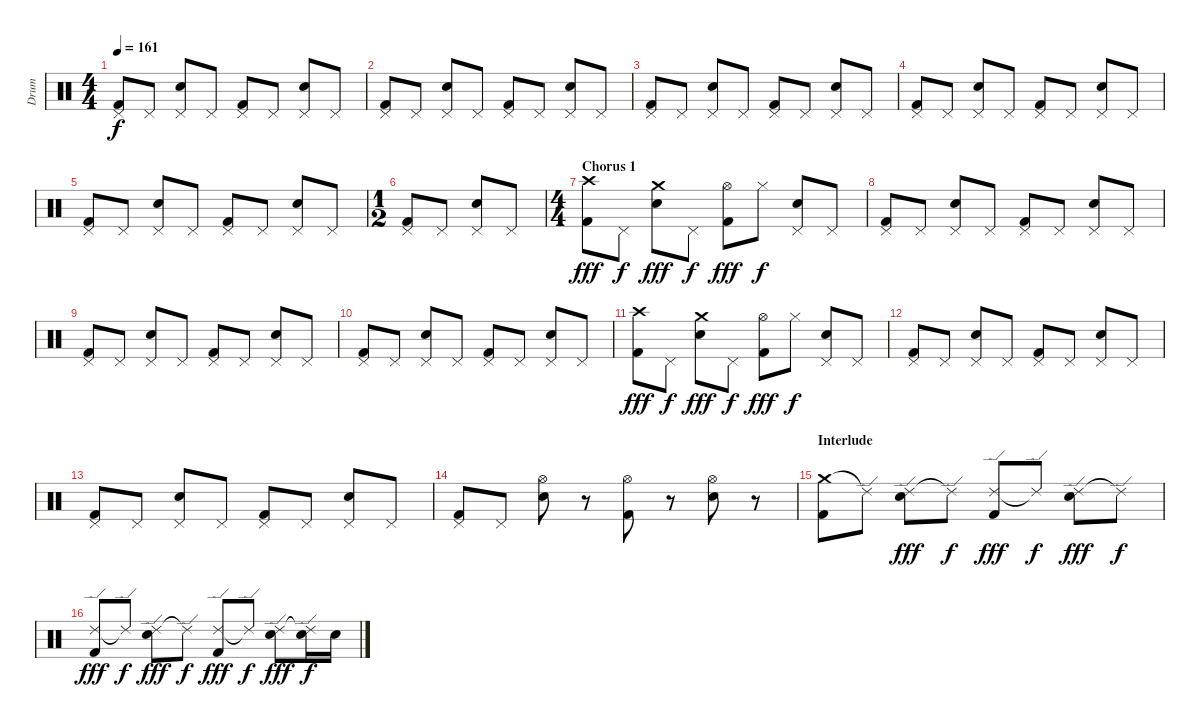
\track ("Drum" "Drum") {instrument percussion}
\staff {score}
\articulation defaults
\ts (4 4)
\tempo 161
\clef neutral
\ks c
("Pedal Hi-Hat (hit)" "Kick (hit) 2").8{dy f} "Pedal Hi-Hat (hit)".8 ("Pedal Hi-Hat (hit)" "Snare (hit) 2").8 "Pedal Hi-Hat (hit)".8 ("Pedal Hi-Hat (hit)" "Kick (hit) 2").8 "Pedal Hi-Hat (hit)".8 ("Pedal Hi-Hat (hit)" "Snare (hit) 2").8 "Pedal Hi-Hat (hit)".8 |
("Pedal Hi-Hat (hit)" "Kick (hit) 2").8 "Pedal Hi-Hat (hit)".8 ("Pedal Hi-Hat (hit)" "Snare (hit) 2").8 "Pedal Hi-Hat (hit)".8 ("Pedal Hi-Hat (hit)" "Kick (hit) 2").8 "Pedal Hi-Hat (hit)".8 ("Pedal Hi-Hat (hit)" "Snare (hit) 2").8 "Pedal Hi-Hat (hit)".8 |
("Pedal Hi-Hat (hit)" "Kick (hit) 2").8 "Pedal Hi-Hat (hit)".8 ("Pedal Hi-Hat (hit)" "Snare (hit) 2").8 "Pedal Hi-Hat (hit)".8 ("Pedal Hi-Hat (hit)" "Kick (hit) 2").8 "Pedal Hi-Hat (hit)".8 ("Pedal Hi-Hat (hit)" "Snare (hit) 2").8 "Pedal Hi-Hat (hit)".8 |
("Pedal Hi-Hat (hit)" "Kick (hit) 2").8 "Pedal Hi-Hat (hit)".8 ("Pedal Hi-Hat (hit)" "Snare (hit) 2").8 "Pedal Hi-Hat (hit)".8 ("Pedal Hi-Hat (hit)" "Kick (hit) 2").8 "Pedal Hi-Hat (hit)".8 ("Pedal Hi-Hat (hit)" "Snare (hit) 2").8 "Pedal Hi-Hat (hit)".8 |
("Pedal Hi-Hat (hit)" "Kick (hit) 2").8 "Pedal Hi-Hat (hit)".8 ("Pedal Hi-Hat (hit)" "Snare (hit) 2").8 "Pedal Hi-Hat (hit)".8 ("Pedal Hi-Hat (hit)" "Kick (hit) 2").8 "Pedal Hi-Hat (hit)".8 ("Pedal Hi-Hat (hit)" "Snare (hit) 2").8 "Pedal Hi-Hat (hit)".8 |
\ts (1 2)
("Pedal Hi-Hat (hit)" "Kick (hit) 2").8 "Pedal Hi-Hat (hit)".8 ("Pedal Hi-Hat (hit)" "Snare (hit) 2").8 "Pedal Hi-Hat (hit)".8 |
\ts (4 4)
\section ("" "Chorus 1")
("Crash high (hit)" "Kick (hit) 2").8{dy fff} "Pedal Hi-Hat (hit)".8{dy f} ("Crash medium (hit)" "Snare (hit) 2").8{dy fff} "Pedal Hi-Hat (hit)".8{dy f} ("Hi-Hat (open)" "Kick (hit) 2").8{dy fff} "Hi-Hat (closed)".8{dy f} ("Pedal Hi-Hat (hit)" "Snare (hit) 2").8 "Pedal Hi-Hat (hit)".8 |
("Pedal Hi-Hat (hit)" "Kick (hit) 2").8 "Pedal Hi-Hat (hit)".8 ("Pedal Hi-Hat (hit)" "Snare (hit) 2").8 "Pedal Hi-Hat (hit)".8 ("Pedal Hi-Hat (hit)" "Kick (hit) 2").8 "Pedal Hi-Hat (hit)".8 ("Pedal Hi-Hat (hit)" "Snare (hit) 2").8 "Pedal Hi-Hat (hit)".8 |
("Pedal Hi-Hat (hit)" "Kick (hit) 2").8 "Pedal Hi-Hat (hit)".8 ("Pedal Hi-Hat (hit)" "Snare (hit) 2").8 "Pedal Hi-Hat (hit)".8 ("Pedal Hi-Hat (hit)" "Kick (hit) 2").8 "Pedal Hi-Hat (hit)".8 ("Pedal Hi-Hat (hit)" "Snare (hit) 2").8 "Pedal Hi-Hat (hit)".8 |
("Pedal Hi-Hat (hit)" "Kick (hit) 2").8 "Pedal Hi-Hat (hit)".8 ("Pedal Hi-Hat (hit)" "Snare (hit) 2").8 "Pedal Hi-Hat (hit)".8 ("Pedal Hi-Hat (hit)" "Kick (hit) 2").8 "Pedal Hi-Hat (hit)".8 ("Pedal Hi-Hat (hit)" "Snare (hit) 2").8 "Pedal Hi-Hat (hit)".8 |
("Crash high (hit)" "Kick (hit) 2").8{dy fff} "Pedal Hi-Hat (hit)".8{dy f} ("Crash medium (hit)" "Snare (hit) 2").8{dy fff} "Pedal Hi-Hat (hit)".8{dy f} ("Hi-Hat (open)" "Kick (hit) 2").8{dy fff} "Hi-Hat (closed)".8{dy f} ("Pedal Hi-Hat (hit)" "Snare (hit) 2").8 "Pedal Hi-Hat (hit)".8 |
("Pedal Hi-Hat (hit)" "Kick (hit) 2").8 "Pedal Hi-Hat (hit)".8 ("Pedal Hi-Hat (hit)" "Snare (hit) 2").8 "Pedal Hi-Hat (hit)".8 ("Pedal Hi-Hat (hit)" "Kick (hit) 2").8 "Pedal Hi-Hat (hit)".8 ("Pedal Hi-Hat (hit)" "Snare (hit) 2").8 "Pedal Hi-Hat (hit)".8 |
("Pedal Hi-Hat (hit)" "Kick (hit) 2").8 "Pedal Hi-Hat (hit)".8 ("Pedal Hi-Hat (hit)" "Snare (hit) 2").8 "Pedal Hi-Hat (hit)".8 ("Pedal Hi-Hat (hit)" "Kick (hit) 2").8 "Pedal Hi-Hat (hit)".8 ("Pedal Hi-Hat (hit)" "Snare (hit) 2").8 "Pedal Hi-Hat (hit)".8 |
("Pedal Hi-Hat (hit)" "Kick (hit) 2").8 "Pedal Hi-Hat (hit)".8 ("Hi-Hat (open)" "Snare (hit) 2").8 r.8 ("Hi-Hat (open)" "Kick (hit) 2").8 r.8 ("Hi-Hat (open)" "Snare (hit) 2").8 r.8 |
\section ("" "Interlude")
("Crash medium (hit)" "Kick (hit) 2").8 "Ride (edge) 2"{t}.8 ("Ride (edge) 2" "Snare (hit) 2").8{dy fff} "Ride (edge) 2"{t}.8{dy f} ("Ride (edge) 2" "Kick (hit) 2").8{dy fff} "Ride (edge) 2"{t}.8{dy f} ("Ride (edge) 2" "Snare (hit) 2").8{dy fff} "Ride (edge) 2"{t}.8{dy f} |
("Ride (edge) 2" "Kick (hit) 2").8{dy fff} "Ride (edge) 2"{t}.8{dy f} ("Ride (edge) 2" "Snare (hit) 2").8{dy fff} "Ride (edge) 2"{t}.8{dy f} ("Ride (edge) 2" "Kick (hit) 2").8{dy fff} "Ride (edge) 2"{t}.8{dy f} ("Ride (edge) 2" "Snare (hit) 2").8{dy fff} ("Ride (edge) 2"{t} "Snare (hit) 2").16{dy f} "Snare (hit) 2".16
